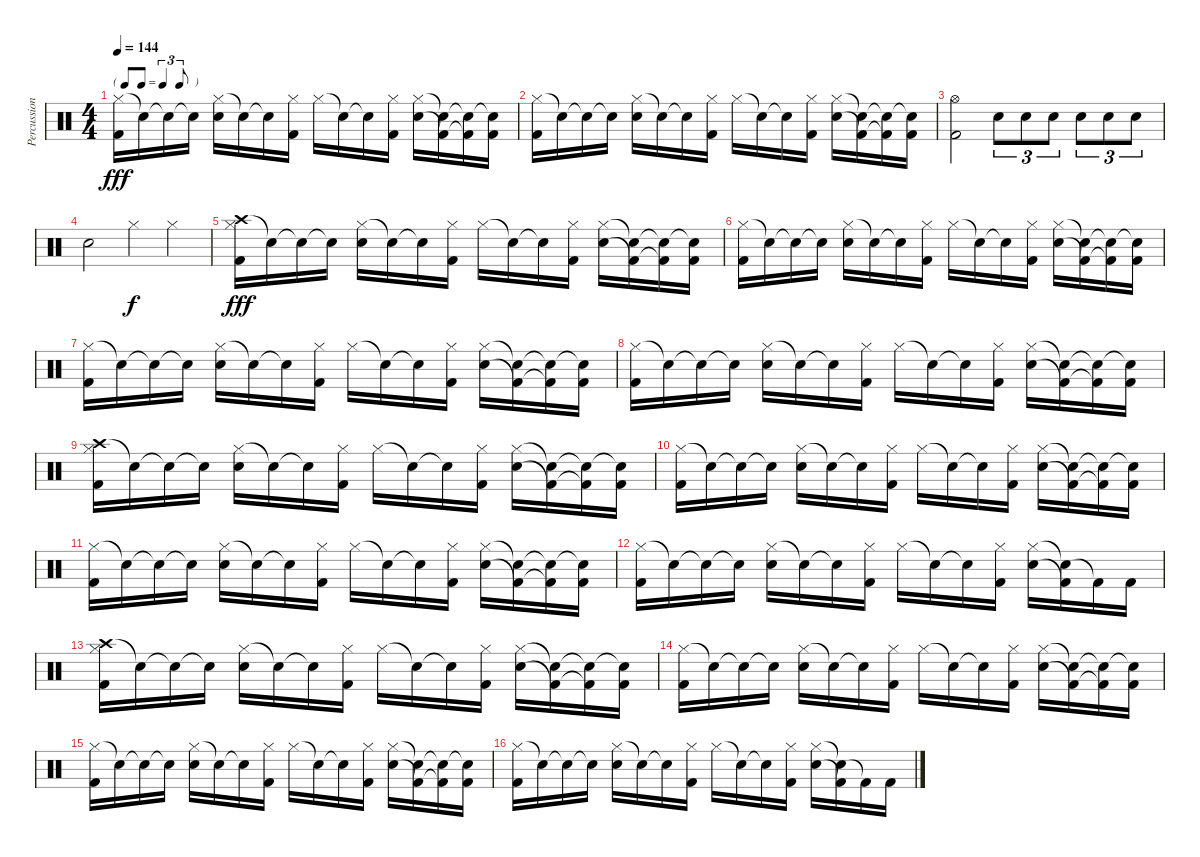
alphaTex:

\track ("Percussion" "Percussion") {instrument percussion}
\staff {score}
\articulation defaults
\ts (4 4)
\tf triplet8th
\tempo 144
\clef neutral
\ks c
("Hi-Hat (closed)" "Kick (hit) 2").16{dy fff} "Snare (hit)"{t}.16 "Snare (hit)"{t}.16 "Snare (hit)"{t}.16 ("Hi-Hat (closed)" "Electric Snare (hit)").16 "Snare (hit)"{t}.16 "Snare (hit)"{t}.16 ("Hi-Hat (closed)" "Kick (hit) 2").16 "Hi-Hat (closed)".16 "Snare (hit)"{t}.16 "Snare (hit)"{t}.16 ("Hi-Hat (closed)" "Kick (hit) 2").16 ("Hi-Hat (closed)" "Electric Snare (hit)").16 ("Snare (hit)"{t} "Kick (hit) 2"{t}).16 ("Snare (hit)"{t} "Kick (hit) 2"{t}).16 ("Snare (hit)"{t} "Kick (hit) 2").16 |
("Hi-Hat (closed)" "Kick (hit) 2").16 "Snare (hit)"{t}.16 "Snare (hit)"{t}.16 "Snare (hit)"{t}.16 ("Hi-Hat (closed)" "Electric Snare (hit)").16 "Snare (hit)"{t}.16 "Snare (hit)"{t}.16 ("Hi-Hat (closed)" "Kick (hit) 2").16 "Hi-Hat (closed)".16 "Snare (hit)"{t}.16 "Snare (hit)"{t}.16 ("Hi-Hat (closed)" "Kick (hit) 2").16 ("Hi-Hat (closed)" "Electric Snare (hit)").16 ("Snare (hit)"{t} "Kick (hit) 2"{t}).16 ("Snare (hit)"{t} "Kick (hit) 2"{t}).16 ("Snare (hit)"{t} "Kick (hit) 2").16 |
("Hi-Hat (open)" "Kick (hit) 2").2 "Electric Snare (hit)".8{tu (3 2)} "Electric Snare (hit)".8{tu (3 2)} "Electric Snare (hit)".8{tu (3 2)} "Electric Snare (hit)".8{tu (3 2)} "Electric Snare (hit)".8{tu (3 2)} "Electric Snare (hit)".8{tu (3 2)} |
"Electric Snare (hit)".2 "Hi-Hat (closed)".4{dy f} "Hi-Hat (closed)".4 |
("Crash high (hit)" "Hi-Hat (closed)" "Kick (hit) 2").16{dy fff} "Snare (hit)"{t}.16 "Snare (hit)"{t}.16 "Snare (hit)"{t}.16 ("Hi-Hat (closed)" "Electric Snare (hit)").16 "Snare (hit)"{t}.16 "Snare (hit)"{t}.16 ("Hi-Hat (closed)" "Kick (hit) 2").16 "Hi-Hat (closed)".16 "Snare (hit)"{t}.16 "Snare (hit)"{t}.16 ("Hi-Hat (closed)" "Kick (hit) 2").16 ("Hi-Hat (closed)" "Electric Snare (hit)").16 ("Snare (hit)"{t} "Kick (hit) 2"{t}).16 ("Snare (hit)"{t} "Kick (hit) 2"{t}).16 ("Snare (hit)"{t} "Kick (hit) 2").16 |
("Hi-Hat (closed)" "Kick (hit) 2").16 "Snare (hit)"{t}.16 "Snare (hit)"{t}.16 "Snare (hit)"{t}.16 ("Hi-Hat (closed)" "Electric Snare (hit)").16 "Snare (hit)"{t}.16 "Snare (hit)"{t}.16 ("Hi-Hat (closed)" "Kick (hit) 2").16 "Hi-Hat (closed)".16 "Snare (hit)"{t}.16 "Snare (hit)"{t}.16 ("Hi-Hat (closed)" "Kick (hit) 2").16 ("Hi-Hat (closed)" "Electric Snare (hit)").16 ("Snare (hit)"{t} "Kick (hit) 2"{t}).16 ("Snare (hit)"{t} "Kick (hit) 2"{t}).16 ("Snare (hit)"{t} "Kick (hit) 2").16 |
("Hi-Hat (closed)" "Kick (hit) 2").16 "Snare (hit)"{t}.16 "Snare (hit)"{t}.16 "Snare (hit)"{t}.16 ("Hi-Hat (closed)" "Electric Snare (hit)").16 "Snare (hit)"{t}.16 "Snare (hit)"{t}.16 ("Hi-Hat (closed)" "Kick (hit) 2").16 "Hi-Hat (closed)".16 "Snare (hit)"{t}.16 "Snare (hit)"{t}.16 ("Hi-Hat (closed)" "Kick (hit) 2").16 ("Hi-Hat (closed)" "Electric Snare (hit)").16 ("Snare (hit)"{t} "Kick (hit) 2"{t}).16 ("Snare (hit)"{t} "Kick (hit) 2"{t}).16 ("Snare (hit)"{t} "Kick (hit) 2").16 |
("Hi-Hat (closed)" "Kick (hit) 2").16 "Snare (hit)"{t}.16 "Snare (hit)"{t}.16 "Snare (hit)"{t}.16 ("Hi-Hat (closed)" "Electric Snare (hit)").16 "Snare (hit)"{t}.16 "Snare (hit)"{t}.16 ("Hi-Hat (closed)" "Kick (hit) 2").16 "Hi-Hat (closed)".16 "Snare (hit)"{t}.16 "Snare (hit)"{t}.16 ("Hi-Hat (closed)" "Kick (hit) 2").16 ("Hi-Hat (closed)" "Electric Snare (hit)").16 ("Snare (hit)"{t} "Kick (hit) 2"{t}).16 ("Snare (hit)"{t} "Kick (hit) 2"{t}).16 ("Snare (hit)"{t} "Kick (hit) 2").16 |
("Crash high (hit)" "Hi-Hat (closed)" "Kick (hit) 2").16 "Snare (hit)"{t}.16 "Snare (hit)"{t}.16 "Snare (hit)"{t}.16 ("Hi-Hat (closed)" "Electric Snare (hit)").16 "Snare (hit)"{t}.16 "Snare (hit)"{t}.16 ("Hi-Hat (closed)" "Kick (hit) 2").16 "Hi-Hat (closed)".16 "Snare (hit)"{t}.16 "Snare (hit)"{t}.16 ("Hi-Hat (closed)" "Kick (hit) 2").16 ("Hi-Hat (closed)" "Electric Snare (hit)").16 ("Snare (hit)"{t} "Kick (hit) 2"{t}).16 ("Snare (hit)"{t} "Kick (hit) 2"{t}).16 ("Snare (hit)"{t} "Kick (hit) 2").16 |
("Hi-Hat (closed)" "Kick (hit) 2").16 "Snare (hit)"{t}.16 "Snare (hit)"{t}.16 "Snare (hit)"{t}.16 ("Hi-Hat (closed)" "Electric Snare (hit)").16 "Snare (hit)"{t}.16 "Snare (hit)"{t}.16 ("Hi-Hat (closed)" "Kick (hit) 2").16 "Hi-Hat (closed)".16 "Snare (hit)"{t}.16 "Snare (hit)"{t}.16 ("Hi-Hat (closed)" "Kick (hit) 2").16 ("Hi-Hat (closed)" "Electric Snare (hit)").16 ("Snare (hit)"{t} "Kick (hit) 2"{t}).16 ("Snare (hit)"{t} "Kick (hit) 2"{t}).16 ("Snare (hit)"{t} "Kick (hit) 2").16 |
("Hi-Hat (closed)" "Kick (hit) 2").16 "Snare (hit)"{t}.16 "Snare (hit)"{t}.16 "Snare (hit)"{t}.16 ("Hi-Hat (closed)" "Electric Snare (hit)").16 "Snare (hit)"{t}.16 "Snare (hit)"{t}.16 ("Hi-Hat (closed)" "Kick (hit) 2").16 "Hi-Hat (closed)".16 "Snare (hit)"{t}.16 "Snare (hit)"{t}.16 ("Hi-Hat (closed)" "Kick (hit) 2").16 ("Hi-Hat (closed)" "Electric Snare (hit)").16 ("Snare (hit)"{t} "Kick (hit) 2"{t}).16 ("Snare (hit)"{t} "Kick (hit) 2"{t}).16 ("Snare (hit)"{t} "Kick (hit) 2").16 |
("Hi-Hat (closed)" "Kick (hit) 2").16 "Snare (hit)"{t}.16 "Snare (hit)"{t}.16 "Snare (hit)"{t}.16 ("Hi-Hat (closed)" "Electric Snare (hit)").16 "Snare (hit)"{t}.16 "Snare (hit)"{t}.16 ("Hi-Hat (closed)" "Kick (hit) 2").16 "Hi-Hat (closed)".16 "Snare (hit)"{t}.16 "Snare (hit)"{t}.16 ("Hi-Hat (closed)" "Kick (hit) 2").16 ("Hi-Hat (closed)" "Electric Snare (hit)").16 ("Snare (hit)"{t} "Kick (hit) 2"{t}).16 "Kick (hit) 2"{t}.16 "Kick (hit) 2".16 |
("Crash high (hit)" "Hi-Hat (closed)" "Kick (hit) 2").16 "Snare (hit)"{t}.16 "Snare (hit)"{t}.16 "Snare (hit)"{t}.16 ("Hi-Hat (closed)" "Electric Snare (hit)").16 "Snare (hit)"{t}.16 "Snare (hit)"{t}.16 ("Hi-Hat (closed)" "Kick (hit) 2").16 "Hi-Hat (closed)".16 "Snare (hit)"{t}.16 "Snare (hit)"{t}.16 ("Hi-Hat (closed)" "Kick (hit) 2").16 ("Hi-Hat (closed)" "Electric Snare (hit)").16 ("Snare (hit)"{t} "Kick (hit) 2"{t}).16 ("Snare (hit)"{t} "Kick (hit) 2"{t}).16 ("Snare (hit)"{t} "Kick (hit) 2").16 |
("Hi-Hat (closed)" "Kick (hit) 2").16 "Snare (hit)"{t}.16 "Snare (hit)"{t}.16 "Snare (hit)"{t}.16 ("Hi-Hat (closed)" "Electric Snare (hit)").16 "Snare (hit)"{t}.16 "Snare (hit)"{t}.16 ("Hi-Hat (closed)" "Kick (hit) 2").16 "Hi-Hat (closed)".16 "Snare (hit)"{t}.16 "Snare (hit)"{t}.16 ("Hi-Hat (closed)" "Kick (hit) 2").16 ("Hi-Hat (closed)" "Electric Snare (hit)").16 ("Snare (hit)"{t} "Kick (hit) 2"{t}).16 ("Snare (hit)"{t} "Kick (hit) 2"{t}).16 ("Snare (hit)"{t} "Kick (hit) 2").16 |
("Hi-Hat (closed)" "Kick (hit) 2").16 "Snare (hit)"{t}.16 "Snare (hit)"{t}.16 "Snare (hit)"{t}.16 ("Hi-Hat (closed)" "Electric Snare (hit)").16 "Snare (hit)"{t}.16 "Snare (hit)"{t}.16 ("Hi-Hat (closed)" "Kick (hit) 2").16 "Hi-Hat (closed)".16 "Snare (hit)"{t}.16 "Snare (hit)"{t}.16 ("Hi-Hat (closed)" "Kick (hit) 2").16 ("Hi-Hat (closed)" "Electric Snare (hit)").16 ("Snare (hit)"{t} "Kick (hit) 2"{t}).16 ("Snare (hit)"{t} "Kick (hit) 2"{t}).16 ("Snare (hit)"{t} "Kick (hit) 2").16 |
("Hi-Hat (closed)" "Kick (hit) 2").16 "Snare (hit)"{t}.16 "Snare (hit)"{t}.16 "Snare (hit)"{t}.16 ("Hi-Hat (closed)" "Electric Snare (hit)").16 "Snare (hit)"{t}.16 "Snare (hit)"{t}.16 ("Hi-Hat (closed)" "Kick (hit) 2").16 "Hi-Hat (closed)".16 "Snare (hit)"{t}.16 "Snare (hit)"{t}.16 ("Hi-Hat (closed)" "Kick (hit) 2").16 ("Hi-Hat (closed)" "Electric Snare (hit)").16 ("Snare (hit)"{t} "Kick (hit) 2"{t}).16 "Kick (hit) 2"{t}.16 "Kick (hit) 2".16
